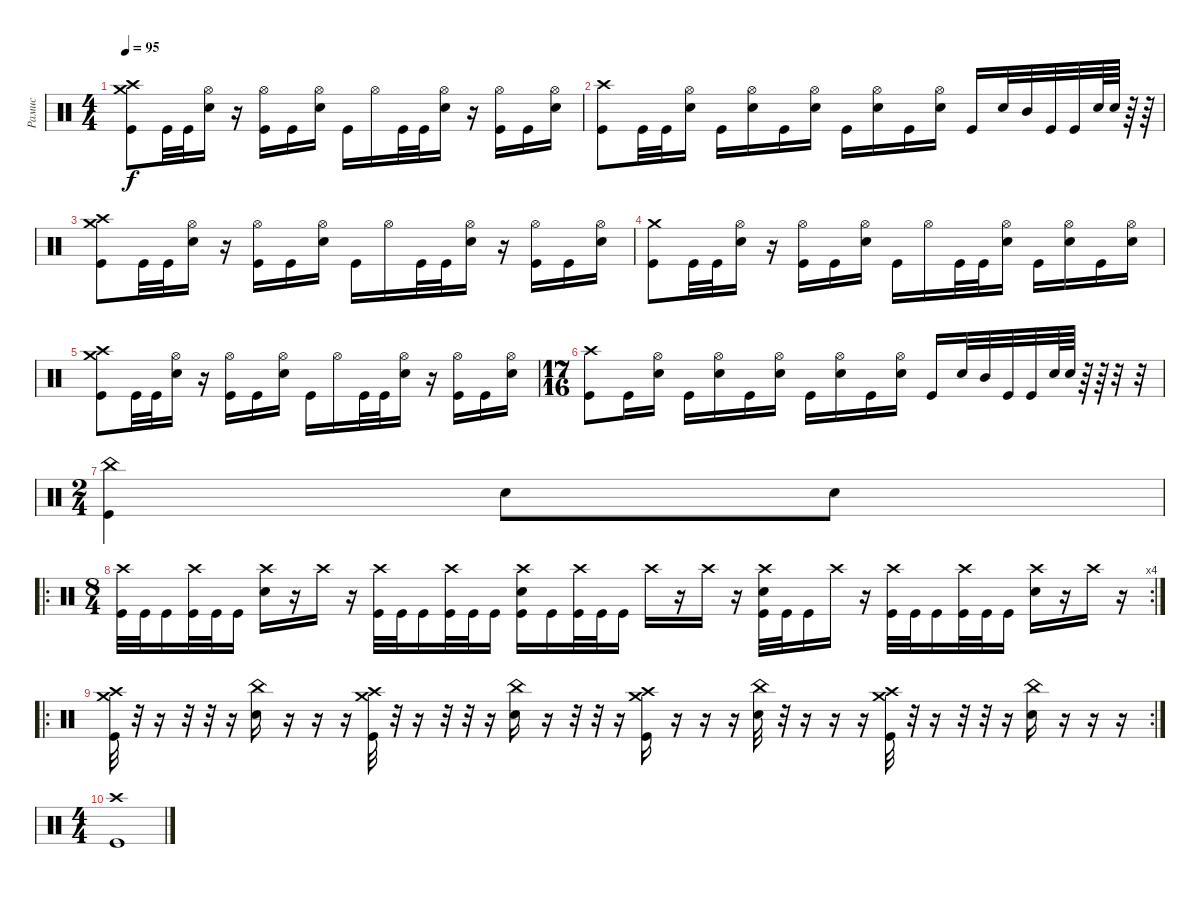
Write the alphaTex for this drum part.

\track ("Рамис" "Рамис") {instrument percussion}
\staff {score}
\articulation defaults
\ts (4 4)
\tempo 95
\clef neutral
\ks c
("Crash medium (hit)" "Crash high (hit)" "Kick (hit)").8{dy f} "Kick (hit)".32 "Kick (hit)".32 ("Hi-Hat (open)" "Electric Snare (hit)").16 r.16 ("Hi-Hat (open)" "Kick (hit)").16 "Kick (hit)".16 ("Hi-Hat (open)" "Electric Snare (hit)").16 "Kick (hit)".16 "Hi-Hat (open)".16 "Kick (hit)".32 "Kick (hit)".32 ("Hi-Hat (open)" "Electric Snare (hit)").16 r.16 ("Hi-Hat (open)" "Kick (hit)").16 "Kick (hit)".16 ("Hi-Hat (open)" "Electric Snare (hit)").16 |
("Crash high (hit)" "Kick (hit)").8 "Kick (hit)".32 "Kick (hit)".32 ("Hi-Hat (open)" "Electric Snare (hit)").16 "Kick (hit)".16 ("Hi-Hat (open)" "Electric Snare (hit)").16 "Kick (hit)".16 ("Hi-Hat (open)" "Electric Snare (hit)").16 "Kick (hit)".16 ("Hi-Hat (open)" "Electric Snare (hit)").16 "Kick (hit)".16 ("Hi-Hat (open)" "Electric Snare (hit)").16 "Kick (hit)".16 "Electric Snare (hit)".32 "Mid Tom (hit)".32 "Kick (hit)".32 "Kick (hit)".32 "Electric Snare (hit)".64 "Electric Snare (hit)".64 r.64 r.64 |
("Crash medium (hit)" "Crash high (hit)" "Kick (hit)").8 "Kick (hit)".32 "Kick (hit)".32 ("Hi-Hat (open)" "Electric Snare (hit)").16 r.16 ("Hi-Hat (open)" "Kick (hit)").16 "Kick (hit)".16 ("Hi-Hat (open)" "Electric Snare (hit)").16 "Kick (hit)".16 "Hi-Hat (open)".16 "Kick (hit)".32 "Kick (hit)".32 ("Hi-Hat (open)" "Electric Snare (hit)").16 r.16 ("Hi-Hat (open)" "Kick (hit)").16 "Kick (hit)".16 ("Hi-Hat (open)" "Electric Snare (hit)").16 |
("Crash medium (hit)" "Kick (hit)").8 "Kick (hit)".32 "Kick (hit)".32 ("Hi-Hat (open)" "Electric Snare (hit)").16 r.16 ("Hi-Hat (open)" "Kick (hit)").16 "Kick (hit)".16 ("Hi-Hat (open)" "Electric Snare (hit)").16 "Kick (hit)".16 "Hi-Hat (open)".16 "Kick (hit)".32 "Kick (hit)".32 ("Hi-Hat (open)" "Electric Snare (hit)").16 "Kick (hit)".16 ("Hi-Hat (open)" "Electric Snare (hit)").16 "Kick (hit)".16 ("Hi-Hat (open)" "Electric Snare (hit)").16 |
("Crash medium (hit)" "Crash high (hit)" "Kick (hit)").8 "Kick (hit)".32 "Kick (hit)".32 ("Hi-Hat (open)" "Electric Snare (hit)").16 r.16 ("Hi-Hat (open)" "Kick (hit)").16 "Kick (hit)".16 ("Hi-Hat (open)" "Electric Snare (hit)").16 "Kick (hit)".16 "Hi-Hat (open)".16 "Kick (hit)".32 "Kick (hit)".32 ("Hi-Hat (open)" "Electric Snare (hit)").16 r.16 ("Hi-Hat (open)" "Kick (hit)").16 "Kick (hit)".16 ("Hi-Hat (open)" "Electric Snare (hit)").16 |
\ts (17 16)
("Crash high (hit)" "Kick (hit)").8 "Kick (hit)".16 ("Hi-Hat (open)" "Electric Snare (hit)").16 "Kick (hit)".16 ("Hi-Hat (open)" "Electric Snare (hit)").16 "Kick (hit)".16 ("Hi-Hat (open)" "Electric Snare (hit)").16 "Kick (hit)".16 ("Hi-Hat (open)" "Electric Snare (hit)").16 "Kick (hit)".16 ("Hi-Hat (open)" "Electric Snare (hit)").16 "Kick (hit)".16 "Electric Snare (hit)".32 "Mid Tom (hit)".32 "Kick (hit)".32 "Kick (hit)".32 "Electric Snare (hit)".64 "Electric Snare (hit)".64 r.64 r.64 r.32 r.32 |
\ts (2 4)
("China (hit)"{be (custom 0 10 30 6 38 5 40 5 45 4 52 4 56 3 58 2 60 0)} "Kick (hit)").4 "Electric Snare (hit)".8 "Electric Snare (hit)".8 |
\ro
\rc 4
\ts (8 4)
("Crash high (hit)" "Kick (hit)").32 "Kick (hit)".32 "Kick (hit)".16 ("Crash high (hit)" "Kick (hit)").32 "Kick (hit)".32 "Kick (hit)".16 ("Crash high (hit)" "Electric Snare (hit)").16 r.16 "Crash high (hit)".16 r.16 ("Crash high (hit)" "Kick (hit)").32 "Kick (hit)".32 "Kick (hit)".16 ("Crash high (hit)" "Kick (hit)").32 "Kick (hit)".32 "Kick (hit)".16 ("Crash high (hit)" "Electric Snare (hit)" "Kick (hit)").16 "Kick (hit)".16 ("Crash high (hit)" "Kick (hit)").32 "Kick (hit)".32 "Kick (hit)".16 "Crash high (hit)".16 r.16 "Crash high (hit)".16 r.16 ("Crash high (hit)" "Electric Snare (hit)" "Kick (hit)").32 "Kick (hit)".32 "Kick (hit)".16 "Crash high (hit)".16 r.16 ("Crash high (hit)" "Kick (hit)").32 "Kick (hit)".32 "Kick (hit)".16 ("Crash high (hit)" "Kick (hit)").32 "Kick (hit)".32 "Kick (hit)".16 ("Crash high (hit)" "Electric Snare (hit)").16 r.16 "Crash high (hit)".16 r.16 |
\ro
\rc 2
("Crash medium (hit)" "Crash high (hit)" "Kick (hit)").32 r.32 r.16 r.32 r.32 r.16 ("China (hit)" "Electric Snare (hit)").16 r.16 r.16 r.16 ("Crash medium (hit)" "Crash high (hit)" "Kick (hit)").32 r.32 r.16 r.32 r.32 r.16 ("China (hit)" "Electric Snare (hit)").16 r.16 r.32 r.32 r.16 ("Crash medium (hit)" "Crash high (hit)" "Kick (hit)").16 r.16 r.16 r.16 ("China (hit)" "Electric Snare (hit)").32 r.32 r.16 r.16 r.16 ("Crash medium (hit)" "Crash high (hit)" "Kick (hit)").32 r.32 r.16 r.32 r.32 r.16 ("China (hit)" "Electric Snare (hit)").16 r.16 r.16 r.16 |
\ts (4 4)
("Kick (hit)" "Crash high (hit)").1
